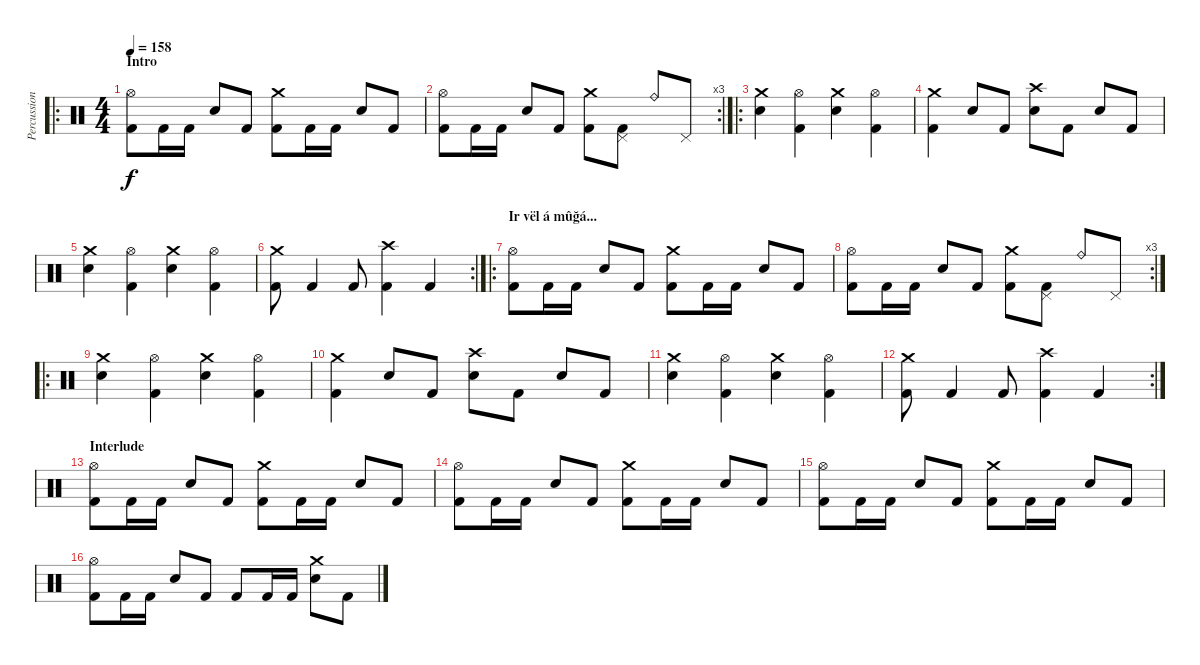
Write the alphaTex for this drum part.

\track ("Percussion" "Percussion") {instrument percussion}
\staff {score}
\articulation defaults
\ro
\ts (4 4)
\section ("" "Intro")
\tempo 158
\clef neutral
\ks c
("Hi-Hat (open)" "Kick (hit) 2").8{dy f} "Kick (hit) 2".16 "Kick (hit) 2".16 "Snare (hit) 2".8 "Kick (hit) 2".8 ("Crash medium (hit)" "Kick (hit) 2").8 "Kick (hit) 2".16 "Kick (hit) 2".16 "Snare (hit) 2".8 "Kick (hit) 2".8 |
\rc 3
("Hi-Hat (open)" "Kick (hit) 2").8 "Kick (hit) 2".16 "Kick (hit) 2".16 "Snare (hit) 2".8 "Kick (hit) 2".8 ("Crash medium (hit)" "Kick (hit) 2").8 ("Pedal Hi-Hat (hit)" "Kick (hit) 2").8 "Ride (bell)".8 "Pedal Hi-Hat (hit)".8 |
\ro
("Crash medium (hit)" "Snare (hit) 2").4 ("Hi-Hat (open)" "Kick (hit) 2").4 ("Crash medium (hit)" "Snare (hit) 2").4 ("Hi-Hat (open)" "Kick (hit) 2").4 |
("Crash medium (hit)" "Kick (hit) 2").4 "Snare (hit) 2".8 "Kick (hit) 2".8 ("Crash high (hit)" "Snare (hit) 2").8 "Kick (hit) 2".8 "Snare (hit) 2".8 "Kick (hit) 2".8 |
("Crash medium (hit)" "Snare (hit) 2").4 ("Hi-Hat (open)" "Kick (hit) 2").4 ("Crash medium (hit)" "Snare (hit) 2").4 ("Hi-Hat (open)" "Kick (hit) 2").4 |
\rc 2
("Crash medium (hit)" "Kick (hit) 2").8 "Kick (hit) 2".4 "Kick (hit) 2".8 ("Crash high (hit)" "Kick (hit) 2").4 "Kick (hit) 2".4 |
\ro
\section ("" "Ir vël á mûğá...")
("Hi-Hat (open)" "Kick (hit) 2").8 "Kick (hit) 2".16 "Kick (hit) 2".16 "Snare (hit) 2".8 "Kick (hit) 2".8 ("Crash medium (hit)" "Kick (hit) 2").8 "Kick (hit) 2".16 "Kick (hit) 2".16 "Snare (hit) 2".8 "Kick (hit) 2".8 |
\rc 3
("Hi-Hat (open)" "Kick (hit) 2").8 "Kick (hit) 2".16 "Kick (hit) 2".16 "Snare (hit) 2".8 "Kick (hit) 2".8 ("Crash medium (hit)" "Kick (hit) 2").8 ("Pedal Hi-Hat (hit)" "Kick (hit) 2").8 "Ride (bell)".8 "Pedal Hi-Hat (hit)".8 |
\ro
("Crash medium (hit)" "Snare (hit) 2").4 ("Hi-Hat (open)" "Kick (hit) 2").4 ("Crash medium (hit)" "Snare (hit) 2").4 ("Hi-Hat (open)" "Kick (hit) 2").4 |
("Crash medium (hit)" "Kick (hit) 2").4 "Snare (hit) 2".8 "Kick (hit) 2".8 ("Crash high (hit)" "Snare (hit) 2").8 "Kick (hit) 2".8 "Snare (hit) 2".8 "Kick (hit) 2".8 |
("Crash medium (hit)" "Snare (hit) 2").4 ("Hi-Hat (open)" "Kick (hit) 2").4 ("Crash medium (hit)" "Snare (hit) 2").4 ("Hi-Hat (open)" "Kick (hit) 2").4 |
\rc 2
("Crash medium (hit)" "Kick (hit) 2").8 "Kick (hit) 2".4 "Kick (hit) 2".8 ("Crash high (hit)" "Kick (hit) 2").4 "Kick (hit) 2".4 |
\section ("" "Interlude")
("Hi-Hat (open)" "Kick (hit) 2").8 "Kick (hit) 2".16 "Kick (hit) 2".16 "Snare (hit) 2".8 "Kick (hit) 2".8 ("Crash medium (hit)" "Kick (hit) 2").8 "Kick (hit) 2".16 "Kick (hit) 2".16 "Snare (hit) 2".8 "Kick (hit) 2".8 |
("Hi-Hat (open)" "Kick (hit) 2").8 "Kick (hit) 2".16 "Kick (hit) 2".16 "Snare (hit) 2".8 "Kick (hit) 2".8 ("Crash medium (hit)" "Kick (hit) 2").8 "Kick (hit) 2".16 "Kick (hit) 2".16 "Snare (hit) 2".8 "Kick (hit) 2".8 |
("Hi-Hat (open)" "Kick (hit) 2").8 "Kick (hit) 2".16 "Kick (hit) 2".16 "Snare (hit) 2".8 "Kick (hit) 2".8 ("Crash medium (hit)" "Kick (hit) 2").8 "Kick (hit) 2".16 "Kick (hit) 2".16 "Snare (hit) 2".8 "Kick (hit) 2".8 |
("Hi-Hat (open)" "Kick (hit) 2").8 "Kick (hit) 2".16 "Kick (hit) 2".16 "Snare (hit) 2".8 "Kick (hit) 2".8 "Kick (hit) 2".8 "Kick (hit) 2".16 "Kick (hit) 2".16 ("Crash medium (hit)" "Snare (hit) 2").8 "Kick (hit) 2".8
